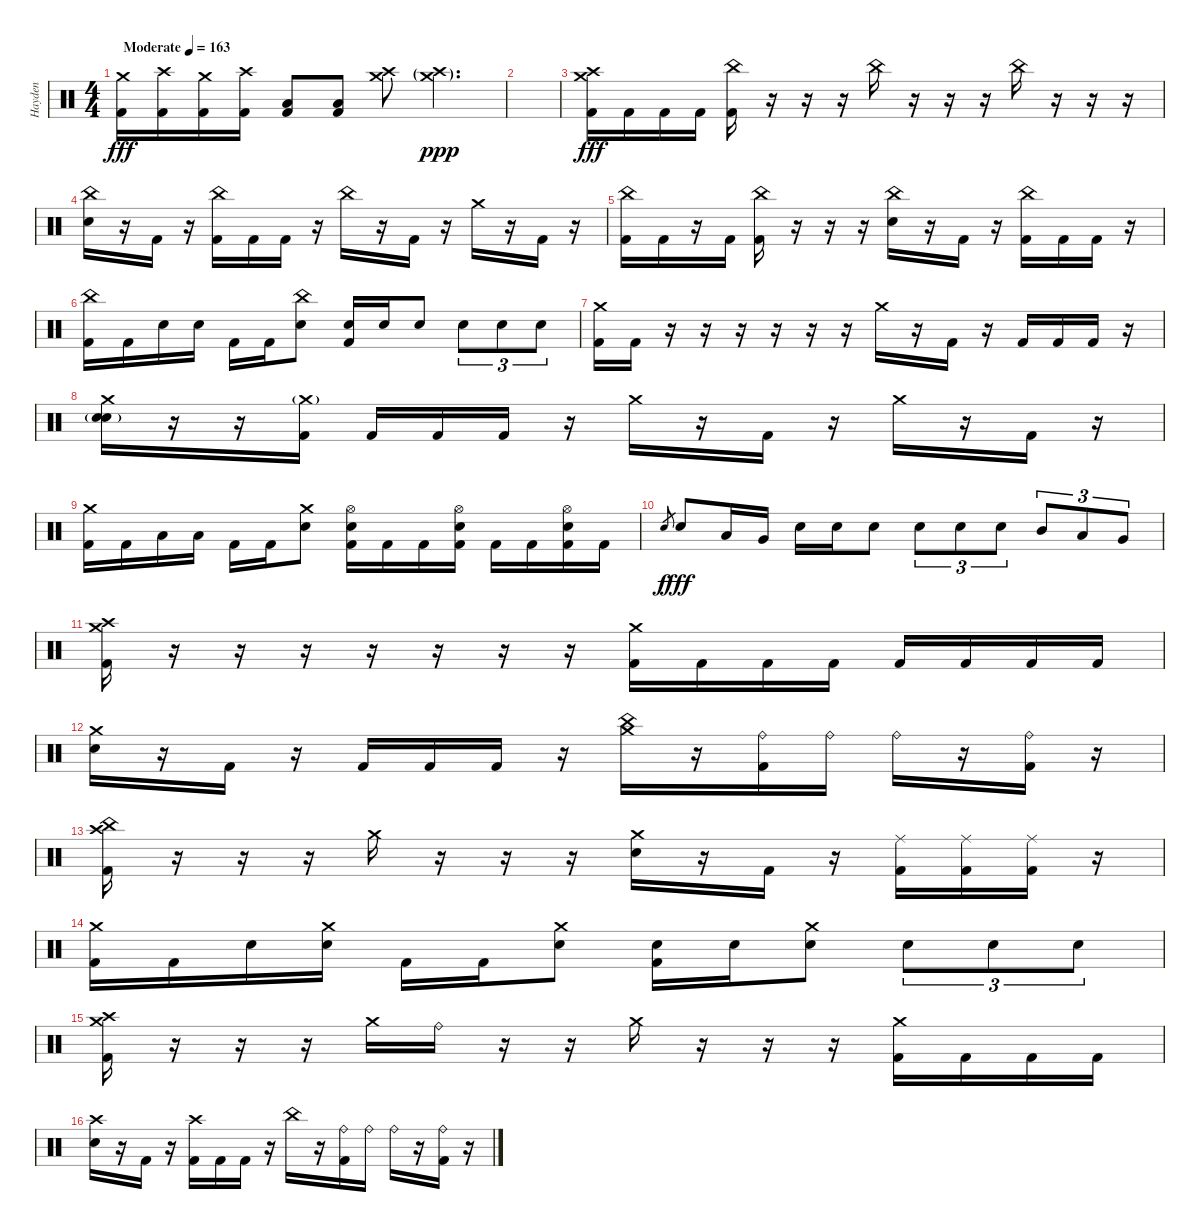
\track ("Hayden" "Hayden") {instrument percussion}
\staff {score}
\articulation defaults
\ts (4 4)
\tempo (163 "Moderate")
\clef neutral
\ks c
("Crash medium (hit)" "Kick (hit) 2").16{dy fff} ("Crash high (hit)" "Kick (hit) 2").16 ("Crash medium (hit)" "Kick (hit) 2").16 ("Crash high (hit)" "Kick (hit) 2").16 ("Low Floor Tom (hit)" "Kick (hit) 2").8 ("Low Floor Tom (hit)" "Kick (hit) 2").8 ("Crash medium (hit)" "Crash high (hit)").8 ("Crash medium (hit)"{g} "Crash high (hit)"{g}).4{d dy ppp} |
|
("Crash medium (hit)" "Crash high (hit)" "Kick (hit) 2").16{dy fff} "Kick (hit) 2".16 "Kick (hit) 2".16 "Kick (hit) 2".16 ("China (hit)" "Kick (hit) 2").16 r.16 r.16 r.16 "China (hit)".16 r.16 r.16 r.16 "China (hit)".16 r.16 r.16 r.16 |
("China (hit)" "Electric Snare (hit)").16 r.16 "Kick (hit) 2".16 r.16 ("China (hit)" "Kick (hit) 2").16 "Kick (hit) 2".16 "Kick (hit) 2".16 r.16 "China (hit)".16 r.16 "Kick (hit) 2".16 r.16 "Crash medium (hit)".16 r.16 "Kick (hit) 2".16 r.16 |
("China (hit)" "Kick (hit) 2").16 "Kick (hit) 2".16 r.16 "Kick (hit) 2".16 ("China (hit)" "Kick (hit) 2").16 r.16 r.16 r.16 ("China (hit)" "Electric Snare (hit)").16 r.16 "Kick (hit) 2".16 r.16 ("China (hit)" "Kick (hit) 2").16 "Kick (hit) 2".16 "Kick (hit) 2".16 r.16 |
("China (hit)" "Kick (hit) 2").16 "Kick (hit) 2".16 "Electric Snare (hit)".16 "Electric Snare (hit)".16 "Kick (hit) 2".16 "Kick (hit) 2".16 ("China (hit)" "Electric Snare (hit)").8 ("Electric Snare (hit)" "Kick (hit) 2").16 "Electric Snare (hit)".16 "Electric Snare (hit)".8 "Electric Snare (hit)".8{tu (3 2)} "Electric Snare (hit)".8{tu (3 2)} "Electric Snare (hit)".8{tu (3 2)} |
("Crash medium (hit)" "Kick (hit) 2").16 "Kick (hit) 2".16 r.16 r.16 r.16 r.16 r.16 r.16 "Crash medium (hit)".16 r.16 "Kick (hit) 2".16 r.16 "Kick (hit) 2".16 "Kick (hit) 2".16 "Kick (hit) 2".16 r.16 |
("Crash medium (hit)" "Snare (hit) 2"{g} "Electric Snare (hit)").16 r.16 r.16 ("Crash medium (hit)"{g} "Kick (hit) 2").16 "Kick (hit) 2".16 "Kick (hit) 2".16 "Kick (hit) 2".16 r.16 "Crash medium (hit)".16 r.16 "Kick (hit) 2".16 r.16 "Crash medium (hit)".16 r.16 "Kick (hit) 2".16 r.16 |
("Crash medium (hit)" "Kick (hit) 2").16 "Kick (hit) 2".16 "Low Tom (hit)".16 "Low Tom (hit)".16 "Kick (hit) 2".16 "Kick (hit) 2".16 ("Crash medium (hit)" "Electric Snare (hit)").8 ("Hi-Hat (open)" "Electric Snare (hit)" "Kick (hit) 2").16 "Kick (hit) 2".16 "Kick (hit) 2".16 ("Hi-Hat (open)" "Electric Snare (hit)" "Kick (hit) 2").16 "Kick (hit) 2".16 "Kick (hit) 2".16 ("Hi-Hat (open)" "Electric Snare (hit)" "Kick (hit) 2").16 "Kick (hit) 2".16 |
"Electric Snare (hit)".8{gr dy f} "Electric Snare (hit)".8{dy fff} "Low Tom (hit)".16 "Very Low Tom (hit)".16 "Electric Snare (hit)".16 "Electric Snare (hit)".16 "Electric Snare (hit)".8 "Electric Snare (hit)".8{tu (3 2)} "Electric Snare (hit)".8{tu (3 2)} "Electric Snare (hit)".8{tu (3 2)} "Mid Tom (hit)".8{tu (3 2)} "Low Tom (hit)".8{tu (3 2)} "Very Low Tom (hit)".8{tu (3 2)} |
("Crash medium (hit)" "Crash high (hit)" "Kick (hit) 2").16 r.16 r.16 r.16 r.16 r.16 r.16 r.16 ("Crash medium (hit)" "Kick (hit) 2").16 "Kick (hit) 2".16 "Kick (hit) 2".16 "Kick (hit) 2".16 "Kick (hit) 2".16 "Kick (hit) 2".16 "Kick (hit) 2".16 "Kick (hit) 2".16 |
("Crash medium (hit)" "Electric Snare (hit)").16 r.16 "Kick (hit) 2".16 r.16 "Kick (hit) 2".16 "Kick (hit) 2".16 "Kick (hit) 2".16 r.16 ("China (hit)" "Crash medium (hit)").16 r.16 ("Ride (bell)" "Kick (hit) 2").16 "Ride (bell)".16 "Ride (bell)".16 r.16 ("Ride (bell)" "Kick (hit) 2").16 r.16 |
("China (hit)" "Crash high (hit)" "Kick (hit) 2").16 r.16 r.16 r.16 "Crash medium (hit)".16 r.16 r.16 r.16 ("Crash medium (hit)" "Electric Snare (hit)").16 r.16 "Kick (hit) 2".16 r.16 ("Ride (middle)" "Kick (hit) 2").16 ("Ride (middle)" "Kick (hit) 2").16 ("Ride (middle)" "Kick (hit) 2").16 r.16 |
("Crash medium (hit)" "Kick (hit) 2").16 "Kick (hit) 2".16 "Electric Snare (hit)".16 ("Crash medium (hit)" "Electric Snare (hit)").16 "Kick (hit) 2".16 "Kick (hit) 2".16 ("Crash medium (hit)" "Electric Snare (hit)").8 ("Electric Snare (hit)" "Kick (hit) 2").16 "Electric Snare (hit)".16 ("Crash medium (hit)" "Electric Snare (hit)").8 "Electric Snare (hit)".8{tu (3 2)} "Electric Snare (hit)".8{tu (3 2)} "Electric Snare (hit)".8{tu (3 2)} |
("Crash medium (hit)" "Crash high (hit)" "Kick (hit) 2").16 r.16 r.16 r.16 "Crash medium (hit)".16 "Ride (bell)".16 r.16 r.16 "Crash medium (hit)".16 r.16 r.16 r.16 ("Crash medium (hit)" "Kick (hit) 2").16 "Kick (hit) 2".16 "Kick (hit) 2".16 "Kick (hit) 2".16 |
("Crash high (hit)" "Electric Snare (hit)").16 r.16 "Kick (hit) 2".16 r.16 ("Crash high (hit)" "Kick (hit) 2").16 "Kick (hit) 2".16 "Kick (hit) 2".16 r.16 "China (hit)".16 r.16 ("Ride (bell)" "Kick (hit) 2").16 "Ride (bell)".16 "Ride (bell)".16 r.16 ("Ride (bell)" "Kick (hit) 2").16 r.16
